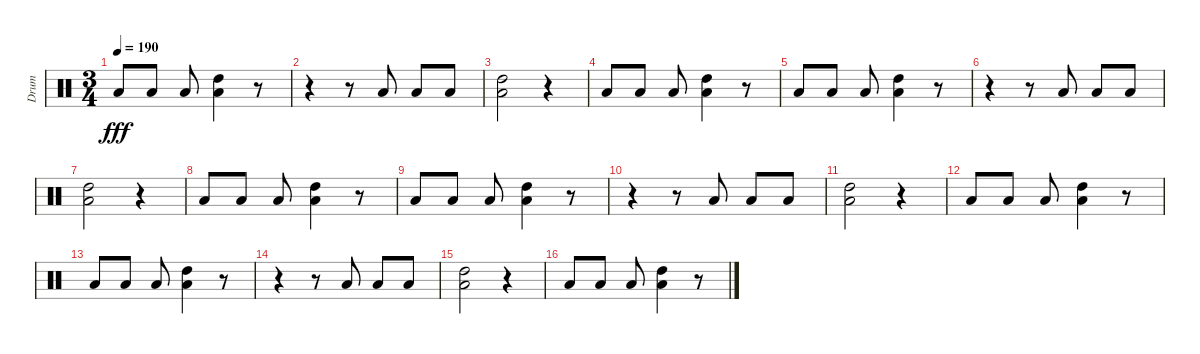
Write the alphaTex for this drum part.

\track ("Drum" "Drum") {instrument percussion}
\staff {score}
\articulation defaults
\ts (3 4)
\tempo 190
\clef neutral
\ks c "Low Tom (hit)".8{dy fff} "Low Tom (hit)".8 "Low Tom (hit)".8
("High Tom (hit)" "Low Tom (hit)").4 r.8 |
r.4 r.8 "Low Tom (hit)".8 "Low Tom (hit)".8 "Low Tom (hit)".8 |
("High Tom (hit)" "Low Tom (hit)").2 r.4 |
"Low Tom (hit)".8 "Low Tom (hit)".8 "Low Tom (hit)".8 ("High Tom (hit)" "Low Tom (hit)").4 r.8 |
"Low Tom (hit)".8 "Low Tom (hit)".8 "Low Tom (hit)".8 ("High Tom (hit)" "Low Tom (hit)").4 r.8 |
r.4 r.8 "Low Tom (hit)".8 "Low Tom (hit)".8 "Low Tom (hit)".8 |
("High Tom (hit)" "Low Tom (hit)").2 r.4 |
"Low Tom (hit)".8 "Low Tom (hit)".8 "Low Tom (hit)".8 ("High Tom (hit)" "Low Tom (hit)").4 r.8 |
"Low Tom (hit)".8 "Low Tom (hit)".8 "Low Tom (hit)".8 ("High Tom (hit)" "Low Tom (hit)").4 r.8 |
r.4 r.8 "Low Tom (hit)".8 "Low Tom (hit)".8 "Low Tom (hit)".8 |
("High Tom (hit)" "Low Tom (hit)").2 r.4 |
"Low Tom (hit)".8 "Low Tom (hit)".8 "Low Tom (hit)".8 ("High Tom (hit)" "Low Tom (hit)").4 r.8 |
"Low Tom (hit)".8 "Low Tom (hit)".8 "Low Tom (hit)".8 ("High Tom (hit)" "Low Tom (hit)").4 r.8 |
r.4 r.8 "Low Tom (hit)".8 "Low Tom (hit)".8 "Low Tom (hit)".8 |
("High Tom (hit)" "Low Tom (hit)").2 r.4 |
"Low Tom (hit)".8 "Low Tom (hit)".8 "Low Tom (hit)".8 ("High Tom (hit)" "Low Tom (hit)").4 r.8
